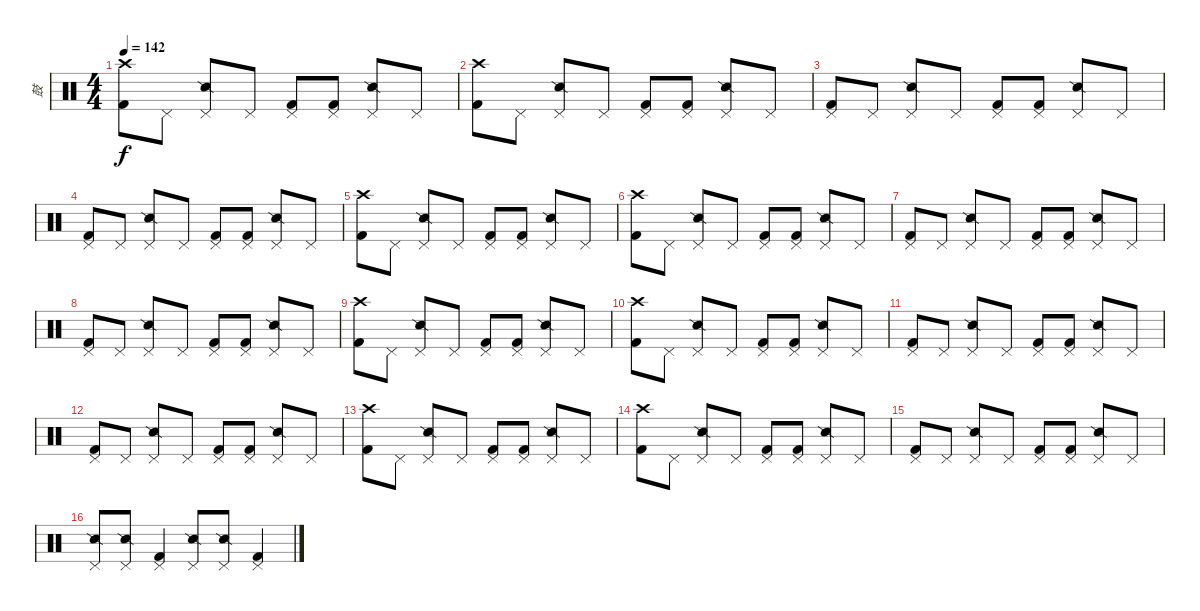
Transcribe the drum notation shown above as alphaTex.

\track ("鼓" "鼓") {instrument percussion}
\staff {score}
\articulation defaults
\ts (4 4)
\tempo 142
\clef neutral
\ks c
("Crash high (hit)" "Kick (hit) 2").8{dy f} "Pedal Hi-Hat (hit)".8 ("Pedal Hi-Hat (hit)" "Snare (side stick) 2").8 "Pedal Hi-Hat (hit)".8 ("Pedal Hi-Hat (hit)" "Kick (hit) 2").8 ("Pedal Hi-Hat (hit)" "Kick (hit) 2").8 ("Pedal Hi-Hat (hit)" "Snare (side stick) 2").8 "Pedal Hi-Hat (hit)".8 |
("Crash high (hit)" "Kick (hit) 2").8 "Pedal Hi-Hat (hit)".8 ("Pedal Hi-Hat (hit)" "Snare (side stick) 2").8 "Pedal Hi-Hat (hit)".8 ("Pedal Hi-Hat (hit)" "Kick (hit) 2").8 ("Pedal Hi-Hat (hit)" "Kick (hit) 2").8 ("Pedal Hi-Hat (hit)" "Snare (side stick) 2").8 "Pedal Hi-Hat (hit)".8 |
("Pedal Hi-Hat (hit)" "Kick (hit) 2").8 "Pedal Hi-Hat (hit)".8 ("Pedal Hi-Hat (hit)" "Snare (side stick) 2").8 "Pedal Hi-Hat (hit)".8 ("Pedal Hi-Hat (hit)" "Kick (hit) 2").8 ("Pedal Hi-Hat (hit)" "Kick (hit) 2").8 ("Pedal Hi-Hat (hit)" "Snare (side stick) 2").8 "Pedal Hi-Hat (hit)".8 |
("Pedal Hi-Hat (hit)" "Kick (hit) 2").8 "Pedal Hi-Hat (hit)".8 ("Pedal Hi-Hat (hit)" "Snare (side stick) 2").8 "Pedal Hi-Hat (hit)".8 ("Pedal Hi-Hat (hit)" "Kick (hit) 2").8 ("Pedal Hi-Hat (hit)" "Kick (hit) 2").8 ("Pedal Hi-Hat (hit)" "Snare (side stick) 2").8 "Pedal Hi-Hat (hit)".8 |
("Crash high (hit)" "Kick (hit) 2").8 "Pedal Hi-Hat (hit)".8 ("Pedal Hi-Hat (hit)" "Snare (side stick) 2").8 "Pedal Hi-Hat (hit)".8 ("Pedal Hi-Hat (hit)" "Kick (hit) 2").8 ("Pedal Hi-Hat (hit)" "Kick (hit) 2").8 ("Pedal Hi-Hat (hit)" "Snare (side stick) 2").8 "Pedal Hi-Hat (hit)".8 |
("Crash high (hit)" "Kick (hit) 2").8 "Pedal Hi-Hat (hit)".8 ("Pedal Hi-Hat (hit)" "Snare (side stick) 2").8 "Pedal Hi-Hat (hit)".8 ("Pedal Hi-Hat (hit)" "Kick (hit) 2").8 ("Pedal Hi-Hat (hit)" "Kick (hit) 2").8 ("Pedal Hi-Hat (hit)" "Snare (side stick) 2").8 "Pedal Hi-Hat (hit)".8 |
("Pedal Hi-Hat (hit)" "Kick (hit) 2").8 "Pedal Hi-Hat (hit)".8 ("Pedal Hi-Hat (hit)" "Snare (side stick) 2").8 "Pedal Hi-Hat (hit)".8 ("Pedal Hi-Hat (hit)" "Kick (hit) 2").8 ("Pedal Hi-Hat (hit)" "Kick (hit) 2").8 ("Pedal Hi-Hat (hit)" "Snare (side stick) 2").8 "Pedal Hi-Hat (hit)".8 |
("Pedal Hi-Hat (hit)" "Kick (hit) 2").8 "Pedal Hi-Hat (hit)".8 ("Pedal Hi-Hat (hit)" "Snare (side stick) 2").8 "Pedal Hi-Hat (hit)".8 ("Pedal Hi-Hat (hit)" "Kick (hit) 2").8 ("Pedal Hi-Hat (hit)" "Kick (hit) 2").8 ("Pedal Hi-Hat (hit)" "Snare (side stick) 2").8 "Pedal Hi-Hat (hit)".8 |
("Crash high (hit)" "Kick (hit) 2").8 "Pedal Hi-Hat (hit)".8 ("Pedal Hi-Hat (hit)" "Snare (side stick) 2").8 "Pedal Hi-Hat (hit)".8 ("Pedal Hi-Hat (hit)" "Kick (hit) 2").8 ("Pedal Hi-Hat (hit)" "Kick (hit) 2").8 ("Pedal Hi-Hat (hit)" "Snare (side stick) 2").8 "Pedal Hi-Hat (hit)".8 |
("Crash high (hit)" "Kick (hit) 2").8 "Pedal Hi-Hat (hit)".8 ("Pedal Hi-Hat (hit)" "Snare (side stick) 2").8 "Pedal Hi-Hat (hit)".8 ("Pedal Hi-Hat (hit)" "Kick (hit) 2").8 ("Pedal Hi-Hat (hit)" "Kick (hit) 2").8 ("Pedal Hi-Hat (hit)" "Snare (side stick) 2").8 "Pedal Hi-Hat (hit)".8 |
("Pedal Hi-Hat (hit)" "Kick (hit) 2").8 "Pedal Hi-Hat (hit)".8 ("Pedal Hi-Hat (hit)" "Snare (side stick) 2").8 "Pedal Hi-Hat (hit)".8 ("Pedal Hi-Hat (hit)" "Kick (hit) 2").8 ("Pedal Hi-Hat (hit)" "Kick (hit) 2").8 ("Pedal Hi-Hat (hit)" "Snare (side stick) 2").8 "Pedal Hi-Hat (hit)".8 |
("Pedal Hi-Hat (hit)" "Kick (hit) 2").8 "Pedal Hi-Hat (hit)".8 ("Pedal Hi-Hat (hit)" "Snare (side stick) 2").8 "Pedal Hi-Hat (hit)".8 ("Pedal Hi-Hat (hit)" "Kick (hit) 2").8 ("Pedal Hi-Hat (hit)" "Kick (hit) 2").8 ("Pedal Hi-Hat (hit)" "Snare (side stick) 2").8 "Pedal Hi-Hat (hit)".8 |
("Crash high (hit)" "Kick (hit) 2").8 "Pedal Hi-Hat (hit)".8 ("Pedal Hi-Hat (hit)" "Snare (side stick) 2").8 "Pedal Hi-Hat (hit)".8 ("Pedal Hi-Hat (hit)" "Kick (hit) 2").8 ("Pedal Hi-Hat (hit)" "Kick (hit) 2").8 ("Pedal Hi-Hat (hit)" "Snare (side stick) 2").8 "Pedal Hi-Hat (hit)".8 |
("Crash high (hit)" "Kick (hit) 2").8 "Pedal Hi-Hat (hit)".8 ("Pedal Hi-Hat (hit)" "Snare (side stick) 2").8 "Pedal Hi-Hat (hit)".8 ("Pedal Hi-Hat (hit)" "Kick (hit) 2").8 ("Pedal Hi-Hat (hit)" "Kick (hit) 2").8 ("Pedal Hi-Hat (hit)" "Snare (side stick) 2").8 "Pedal Hi-Hat (hit)".8 |
("Pedal Hi-Hat (hit)" "Kick (hit) 2").8 "Pedal Hi-Hat (hit)".8 ("Pedal Hi-Hat (hit)" "Snare (side stick) 2").8 "Pedal Hi-Hat (hit)".8 ("Pedal Hi-Hat (hit)" "Kick (hit) 2").8 ("Pedal Hi-Hat (hit)" "Kick (hit) 2").8 ("Pedal Hi-Hat (hit)" "Snare (side stick) 2").8 "Pedal Hi-Hat (hit)".8 |
("Pedal Hi-Hat (hit)" "Snare (side stick) 2").8 ("Pedal Hi-Hat (hit)" "Snare (side stick) 2").8 ("Pedal Hi-Hat (hit)" "Kick (hit) 2").4 ("Pedal Hi-Hat (hit)" "Snare (side stick) 2").8 ("Pedal Hi-Hat (hit)" "Snare (side stick) 2").8 ("Pedal Hi-Hat (hit)" "Kick (hit) 2").4
